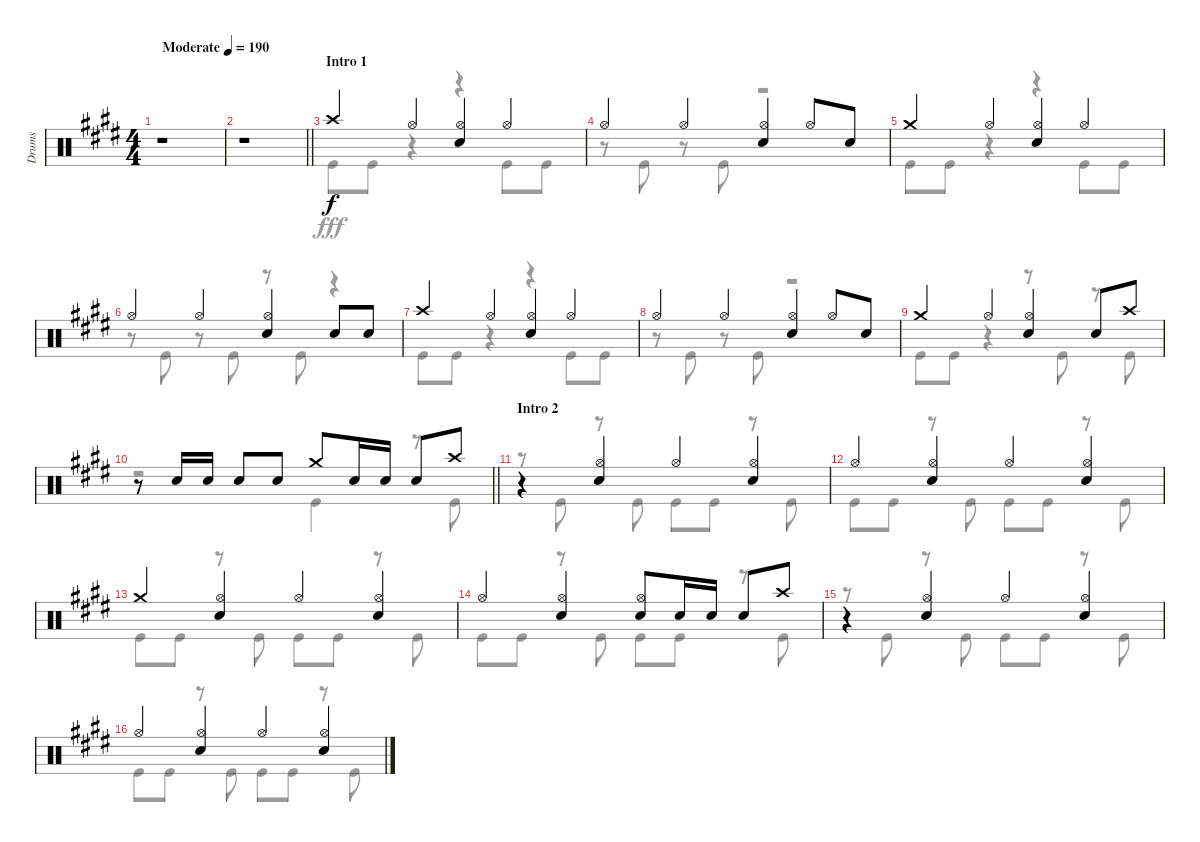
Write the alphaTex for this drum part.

\track ("Drums" "Drums") {instrument percussion}
\staff {score}
\articulation defaults
\voice
\ts (4 4)
\tempo (190 "Moderate")
\clef neutral
\ks e
r.1{dy f} |
\barLineRight lightlight
r.1 |
\section ("" "Intro 1")
"Crash high (hit)".4 "Hi-Hat (open)".4 ("Hi-Hat (open)" "Snare (hit) 2").4 "Hi-Hat (open)".4 |
"Hi-Hat (open)".4 "Hi-Hat (open)".4 ("Hi-Hat (open)" "Snare (hit) 2").4 "Hi-Hat (open)".8 "Snare (hit) 2".8 |
"Crash medium (hit)".4 "Hi-Hat (open)".4 ("Hi-Hat (open)" "Snare (hit) 2").4 "Hi-Hat (open)".4 |
"Hi-Hat (open)".4 "Hi-Hat (open)".4 ("Hi-Hat (open)" "Snare (hit) 2").4 "Snare (hit) 2".8 "Snare (hit) 2".8 |
"Crash high (hit)".4 "Hi-Hat (open)".4 ("Hi-Hat (open)" "Snare (hit) 2").4 "Hi-Hat (open)".4 |
"Hi-Hat (open)".4 "Hi-Hat (open)".4 ("Hi-Hat (open)" "Snare (hit) 2").4 "Hi-Hat (open)".8 "Snare (hit) 2".8 |
"Crash medium (hit)".4 "Hi-Hat (open)".4 ("Hi-Hat (open)" "Snare (hit) 2").4 "Snare (hit) 2".8 "Crash high (hit)".8 |
\barLineRight lightlight
r.8 "Snare (hit) 2".16 "Snare (hit) 2".16 "Snare (hit) 2".8 "Snare (hit) 2".8 "Crash medium (hit)".8 "Snare (hit) 2".16 "Snare (hit) 2".16 "Snare (hit) 2".8 "Crash high (hit)".8 |
\section ("" "Intro 2")
r.4 ("Hi-Hat (open)" "Snare (hit) 2").4 "Hi-Hat (open)".4 ("Hi-Hat (open)" "Snare (hit) 2").4 |
"Hi-Hat (open)".4 ("Hi-Hat (open)" "Snare (hit) 2").4 "Hi-Hat (open)".4 ("Hi-Hat (open)" "Snare (hit) 2").4 |
"Crash medium (hit)".4 ("Hi-Hat (open)" "Snare (hit) 2").4 "Hi-Hat (open)".4 ("Hi-Hat (open)" "Snare (hit) 2").4 |
"Hi-Hat (open)".4 ("Hi-Hat (open)" "Snare (hit) 2").4 ("Hi-Hat (open)" "Snare (hit) 2").8 "Snare (hit) 2".16 "Snare (hit) 2".16 "Snare (hit) 2".8 "Crash high (hit)".8 |
r.4 ("Hi-Hat (open)" "Snare (hit) 2").4 "Hi-Hat (open)".4 ("Hi-Hat (open)" "Snare (hit) 2").4 |
"Hi-Hat (open)".4 ("Hi-Hat (open)" "Snare (hit) 2").4 "Hi-Hat (open)".4 ("Hi-Hat (open)" "Snare (hit) 2").4
\voice
\clef neutral
\ottava regular
\simile none
\ks e
r.1{dy fff} |
\barLineRight lightlight
r.1 |
"Kick (hit)".8 "Kick (hit)".8 r.4 r.4 "Kick (hit)".8 "Kick (hit)".8 |
r.8 "Kick (hit)".8 r.8 "Kick (hit)".8 r.2 |
"Kick (hit)".8 "Kick (hit)".8 r.4 r.4 "Kick (hit)".8 "Kick (hit)".8 |
r.8 "Kick (hit)".8 r.8 "Kick (hit)".8 r.8 "Kick (hit)".8 r.4 |
"Kick (hit)".8 "Kick (hit)".8 r.4 r.4 "Kick (hit)".8 "Kick (hit)".8 |
r.8 "Kick (hit)".8 r.8 "Kick (hit)".8 r.2 |
"Kick (hit)".8 "Kick (hit)".8 r.4 r.8 "Kick (hit)".8 r.8 "Kick (hit)".8 |
\barLineRight lightlight
r.2 "Kick (hit)".4 r.8 "Kick (hit)".8 |
r.8 "Kick (hit)".8 r.8 "Kick (hit)".8 "Kick (hit)".8 "Kick (hit)".8 r.8 "Kick (hit)".8 |
"Kick (hit)".8 "Kick (hit)".8 r.8 "Kick (hit)".8 "Kick (hit)".8 "Kick (hit)".8 r.8 "Kick (hit)".8 |
"Kick (hit)".8 "Kick (hit)".8 r.8 "Kick (hit)".8 "Kick (hit)".8 "Kick (hit)".8 r.8 "Kick (hit)".8 |
"Kick (hit)".8 "Kick (hit)".8 r.8 "Kick (hit)".8 "Kick (hit)".8 "Kick (hit)".8 r.8 "Kick (hit)".8 |
r.8 "Kick (hit)".8 r.8 "Kick (hit)".8 "Kick (hit)".8 "Kick (hit)".8 r.8 "Kick (hit)".8 |
"Kick (hit)".8 "Kick (hit)".8 r.8 "Kick (hit)".8 "Kick (hit)".8 "Kick (hit)".8 r.8 "Kick (hit)".8
